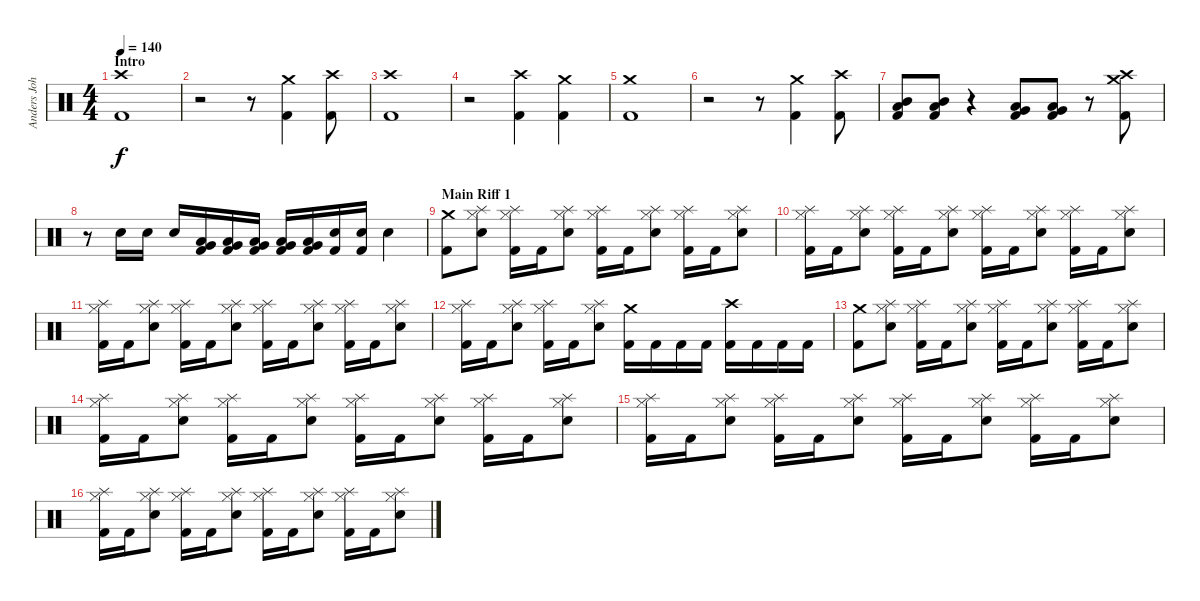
\track ("Anders Johansson :: Drums" "Anders Joh") {instrument percussion}
\staff {score}
\articulation defaults
\ts (4 4)
\section ("" "Intro")
\tempo 140
\clef neutral
\ks c
("Crash high (hit)" "Kick (hit) 2").1{dy f} |
r.2 r.8 ("Crash medium (hit)" "Kick (hit) 2").4 ("Crash high (hit)" "Kick (hit) 2").8 |
("Crash high (hit)" "Kick (hit) 2").1 |
r.2 ("Crash high (hit)" "Kick (hit) 2").4 ("Crash medium (hit)" "Kick (hit) 2").4 |
("Crash medium (hit)" "Kick (hit) 2").1 |
r.2 r.8 ("Crash medium (hit)" "Kick (hit) 2").4 ("Crash high (hit)" "Kick (hit) 2").8 |
("Mid Tom (hit)" "Low Tom (hit)" "Kick (hit) 2").8 ("Mid Tom (hit)" "Low Tom (hit)" "Kick (hit) 2").8 r.4 ("Low Tom (hit)" "Very Low Tom (hit)" "Kick (hit) 2").8 ("Low Tom (hit)" "Very Low Tom (hit)" "Kick (hit) 2").8 r.8 ("Crash medium (hit)" "Crash high (hit)" "Kick (hit) 2").8 |
r.8 "Snare (hit) 2".16 "Snare (hit) 2".16 "Snare (hit) 2".16 ("Low Tom (hit)" "Very Low Tom (hit)" "Kick (hit) 2").16 ("Low Tom (hit)" "Very Low Tom (hit)" "Kick (hit) 2").16 ("Low Tom (hit)" "Very Low Tom (hit)" "Kick (hit) 2").16 ("Very Low Tom (hit)" "Low Floor Tom (hit)" "Kick (hit) 2").16 ("Very Low Tom (hit)" "Low Floor Tom (hit)" "Kick (hit) 2").16 ("Snare (hit) 2" "Kick (hit) 2").16 ("Snare (hit) 2" "Kick (hit) 2").16 "Snare (hit) 2".4 |
\section ("" "Main Riff 1")
("Crash medium (hit)" "Kick (hit) 2").8 ("Hi-Hat (closed)" "Splash (hit)" "Snare (hit) 2").8 ("Hi-Hat (closed)" "Splash (hit)" "Kick (hit) 2").16 "Kick (hit) 2".16 ("Hi-Hat (closed)" "Splash (hit)" "Snare (hit) 2").8 ("Hi-Hat (closed)" "Splash (hit)" "Kick (hit) 2").16 "Kick (hit) 2".16 ("Hi-Hat (closed)" "Splash (hit)" "Snare (hit) 2").8 ("Hi-Hat (closed)" "Splash (hit)" "Kick (hit) 2").16 "Kick (hit) 2".16 ("Hi-Hat (closed)" "Splash (hit)" "Snare (hit) 2").8 |
("Hi-Hat (closed)" "Splash (hit)" "Kick (hit) 2").16 "Kick (hit) 2".16 ("Hi-Hat (closed)" "Splash (hit)" "Snare (hit) 2").8 ("Hi-Hat (closed)" "Splash (hit)" "Kick (hit) 2").16 "Kick (hit) 2".16 ("Hi-Hat (closed)" "Splash (hit)" "Snare (hit) 2").8 ("Hi-Hat (closed)" "Splash (hit)" "Kick (hit) 2").16 "Kick (hit) 2".16 ("Hi-Hat (closed)" "Splash (hit)" "Snare (hit) 2").8 ("Hi-Hat (closed)" "Splash (hit)" "Kick (hit) 2").16 "Kick (hit) 2".16 ("Hi-Hat (closed)" "Splash (hit)" "Snare (hit) 2").8 |
("Hi-Hat (closed)" "Splash (hit)" "Kick (hit) 2").16 "Kick (hit) 2".16 ("Hi-Hat (closed)" "Splash (hit)" "Snare (hit) 2").8 ("Hi-Hat (closed)" "Splash (hit)" "Kick (hit) 2").16 "Kick (hit) 2".16 ("Hi-Hat (closed)" "Splash (hit)" "Snare (hit) 2").8 ("Hi-Hat (closed)" "Splash (hit)" "Kick (hit) 2").16 "Kick (hit) 2".16 ("Hi-Hat (closed)" "Splash (hit)" "Snare (hit) 2").8 ("Hi-Hat (closed)" "Splash (hit)" "Kick (hit) 2").16 "Kick (hit) 2".16 ("Hi-Hat (closed)" "Splash (hit)" "Snare (hit) 2").8 |
("Hi-Hat (closed)" "Splash (hit)" "Kick (hit) 2").16 "Kick (hit) 2".16 ("Hi-Hat (closed)" "Splash (hit)" "Snare (hit) 2").8 ("Hi-Hat (closed)" "Splash (hit)" "Kick (hit) 2").16 "Kick (hit) 2".16 ("Hi-Hat (closed)" "Splash (hit)" "Snare (hit) 2").8 ("Crash medium (hit)" "Kick (hit) 2").16 "Kick (hit) 2".16 "Kick (hit) 2".16 "Kick (hit) 2".16 ("Crash high (hit)" "Kick (hit) 2").16 "Kick (hit) 2".16 "Kick (hit) 2".16 "Kick (hit) 2".16 |
("Crash medium (hit)" "Kick (hit) 2").8 ("Hi-Hat (closed)" "Splash (hit)" "Snare (hit) 2").8 ("Hi-Hat (closed)" "Splash (hit)" "Kick (hit) 2").16 "Kick (hit) 2".16 ("Hi-Hat (closed)" "Splash (hit)" "Snare (hit) 2").8 ("Hi-Hat (closed)" "Splash (hit)" "Kick (hit) 2").16 "Kick (hit) 2".16 ("Hi-Hat (closed)" "Splash (hit)" "Snare (hit) 2").8 ("Hi-Hat (closed)" "Splash (hit)" "Kick (hit) 2").16 "Kick (hit) 2".16 ("Hi-Hat (closed)" "Splash (hit)" "Snare (hit) 2").8 |
("Hi-Hat (closed)" "Splash (hit)" "Kick (hit) 2").16 "Kick (hit) 2".16 ("Hi-Hat (closed)" "Splash (hit)" "Snare (hit) 2").8 ("Hi-Hat (closed)" "Splash (hit)" "Kick (hit) 2").16 "Kick (hit) 2".16 ("Hi-Hat (closed)" "Splash (hit)" "Snare (hit) 2").8 ("Hi-Hat (closed)" "Splash (hit)" "Kick (hit) 2").16 "Kick (hit) 2".16 ("Hi-Hat (closed)" "Splash (hit)" "Snare (hit) 2").8 ("Hi-Hat (closed)" "Splash (hit)" "Kick (hit) 2").16 "Kick (hit) 2".16 ("Hi-Hat (closed)" "Splash (hit)" "Snare (hit) 2").8 |
("Hi-Hat (closed)" "Splash (hit)" "Kick (hit) 2").16 "Kick (hit) 2".16 ("Hi-Hat (closed)" "Splash (hit)" "Snare (hit) 2").8 ("Hi-Hat (closed)" "Splash (hit)" "Kick (hit) 2").16 "Kick (hit) 2".16 ("Hi-Hat (closed)" "Splash (hit)" "Snare (hit) 2").8 ("Hi-Hat (closed)" "Splash (hit)" "Kick (hit) 2").16 "Kick (hit) 2".16 ("Hi-Hat (closed)" "Splash (hit)" "Snare (hit) 2").8 ("Hi-Hat (closed)" "Splash (hit)" "Kick (hit) 2").16 "Kick (hit) 2".16 ("Hi-Hat (closed)" "Splash (hit)" "Snare (hit) 2").8 |
("Hi-Hat (closed)" "Splash (hit)" "Kick (hit) 2").16 "Kick (hit) 2".16 ("Hi-Hat (closed)" "Splash (hit)" "Snare (hit) 2").8 ("Hi-Hat (closed)" "Splash (hit)" "Kick (hit) 2").16 "Kick (hit) 2".16 ("Hi-Hat (closed)" "Splash (hit)" "Snare (hit) 2").8 ("Hi-Hat (closed)" "Splash (hit)" "Kick (hit) 2").16 "Kick (hit) 2".16 ("Hi-Hat (closed)" "Splash (hit)" "Snare (hit) 2").8 ("Hi-Hat (closed)" "Splash (hit)" "Kick (hit) 2").16 "Kick (hit) 2".16 ("Hi-Hat (closed)" "Splash (hit)" "Snare (hit) 2").8
